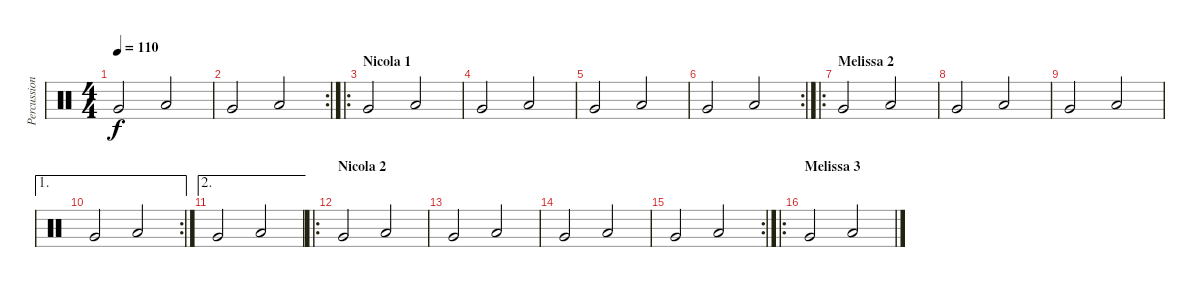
\track ("Percussions" "Percussion") {instrument percussion}
\staff {score}
\articulation defaults
\ts (4 4)
\tempo 110
\clef neutral
\ks c "Very Low Tom (hit)".2{dy f} "Low Floor Tom (hit)".2
|
\rc 2 "Very Low Tom (hit)".2 "Low Floor Tom (hit)".2
|
\ro
\section ("" "Nicola 1")
"Very Low Tom (hit)".2 "Low Floor Tom (hit)".2 |
"Very Low Tom (hit)".2 "Low Floor Tom (hit)".2 |
"Very Low Tom (hit)".2 "Low Floor Tom (hit)".2 |
\rc 2 "Very Low Tom (hit)".2 "Low Floor Tom (hit)".2
|
\ro
\section ("" "Melissa 2")
"Very Low Tom (hit)".2 "Low Floor Tom (hit)".2 |
"Very Low Tom (hit)".2 "Low Floor Tom (hit)".2 |
"Very Low Tom (hit)".2 "Low Floor Tom (hit)".2 |
\ae 1
\rc 2 "Very Low Tom (hit)".2 "Low Floor Tom (hit)".2
|
\ae 2 "Very Low Tom (hit)".2 "Low Floor Tom (hit)".2
|
\ro
\section ("" "Nicola 2")
"Very Low Tom (hit)".2 "Low Floor Tom (hit)".2 |
"Very Low Tom (hit)".2 "Low Floor Tom (hit)".2 |
"Very Low Tom (hit)".2 "Low Floor Tom (hit)".2 |
\rc 2 "Very Low Tom (hit)".2 "Low Floor Tom (hit)".2
|
\ro
\section ("" "Melissa 3")
"Very Low Tom (hit)".2 "Low Floor Tom (hit)".2
